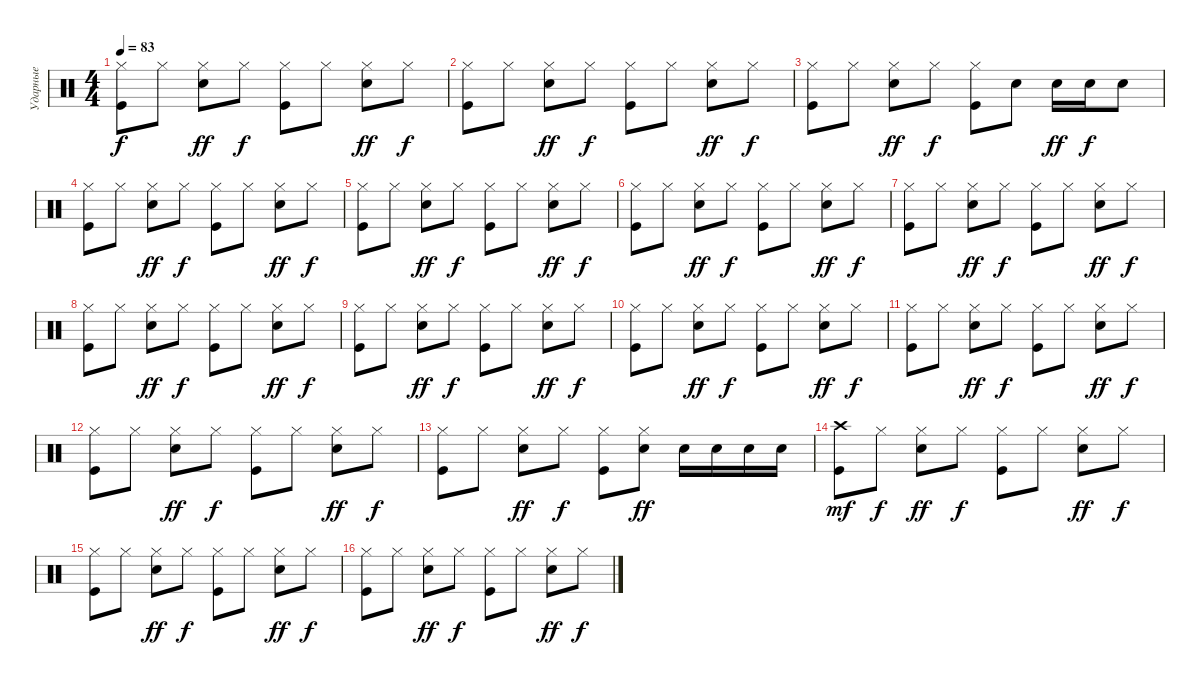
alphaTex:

\track ("Ударные" "Ударные") {instrument percussion}
\staff {score}
\articulation defaults
\ts (4 4)
\tempo 83
\clef neutral
\ks c
("Hi-Hat (closed)" "Kick (hit)").8{dy f} "Hi-Hat (closed)".8 ("Hi-Hat (closed)" "Electric Snare (hit)").8{dy ff} "Hi-Hat (closed)".8{dy f} ("Hi-Hat (closed)" "Kick (hit)").8 "Hi-Hat (closed)".8 ("Hi-Hat (closed)" "Electric Snare (hit)").8{dy ff} "Hi-Hat (closed)".8{dy f} |
("Hi-Hat (closed)" "Kick (hit)").8 "Hi-Hat (closed)".8 ("Hi-Hat (closed)" "Electric Snare (hit)").8{dy ff} "Hi-Hat (closed)".8{dy f} ("Hi-Hat (closed)" "Kick (hit)").8 "Hi-Hat (closed)".8 ("Hi-Hat (closed)" "Electric Snare (hit)").8{dy ff} "Hi-Hat (closed)".8{dy f} |
("Hi-Hat (closed)" "Kick (hit)").8 "Hi-Hat (closed)".8 ("Hi-Hat (closed)" "Electric Snare (hit)").8{dy ff} "Hi-Hat (closed)".8{dy f} ("Hi-Hat (closed)" "Kick (hit)").8 "Electric Snare (hit)".8 "Electric Snare (hit)".16{dy ff} "Electric Snare (hit)".16{dy f} "Electric Snare (hit)".8 |
("Hi-Hat (closed)" "Kick (hit)").8 "Hi-Hat (closed)".8 ("Hi-Hat (closed)" "Electric Snare (hit)").8{dy ff} "Hi-Hat (closed)".8{dy f} ("Hi-Hat (closed)" "Kick (hit)").8 "Hi-Hat (closed)".8 ("Hi-Hat (closed)" "Electric Snare (hit)").8{dy ff} "Hi-Hat (closed)".8{dy f} |
("Hi-Hat (closed)" "Kick (hit)").8 "Hi-Hat (closed)".8 ("Hi-Hat (closed)" "Electric Snare (hit)").8{dy ff} "Hi-Hat (closed)".8{dy f} ("Hi-Hat (closed)" "Kick (hit)").8 "Hi-Hat (closed)".8 ("Hi-Hat (closed)" "Electric Snare (hit)").8{dy ff} "Hi-Hat (closed)".8{dy f} |
("Hi-Hat (closed)" "Kick (hit)").8 "Hi-Hat (closed)".8 ("Hi-Hat (closed)" "Electric Snare (hit)").8{dy ff} "Hi-Hat (closed)".8{dy f} ("Hi-Hat (closed)" "Kick (hit)").8 "Hi-Hat (closed)".8 ("Hi-Hat (closed)" "Electric Snare (hit)").8{dy ff} "Hi-Hat (closed)".8{dy f} |
("Hi-Hat (closed)" "Kick (hit)").8 "Hi-Hat (closed)".8 ("Hi-Hat (closed)" "Electric Snare (hit)").8{dy ff} "Hi-Hat (closed)".8{dy f} ("Hi-Hat (closed)" "Kick (hit)").8 "Hi-Hat (closed)".8 ("Hi-Hat (closed)" "Electric Snare (hit)").8{dy ff} "Hi-Hat (closed)".8{dy f} |
("Hi-Hat (closed)" "Kick (hit)").8 "Hi-Hat (closed)".8 ("Hi-Hat (closed)" "Electric Snare (hit)").8{dy ff} "Hi-Hat (closed)".8{dy f} ("Hi-Hat (closed)" "Kick (hit)").8 "Hi-Hat (closed)".8 ("Hi-Hat (closed)" "Electric Snare (hit)").8{dy ff} "Hi-Hat (closed)".8{dy f} |
("Hi-Hat (closed)" "Kick (hit)").8 "Hi-Hat (closed)".8 ("Hi-Hat (closed)" "Electric Snare (hit)").8{dy ff} "Hi-Hat (closed)".8{dy f} ("Hi-Hat (closed)" "Kick (hit)").8 "Hi-Hat (closed)".8 ("Hi-Hat (closed)" "Electric Snare (hit)").8{dy ff} "Hi-Hat (closed)".8{dy f} |
("Hi-Hat (closed)" "Kick (hit)").8 "Hi-Hat (closed)".8 ("Hi-Hat (closed)" "Electric Snare (hit)").8{dy ff} "Hi-Hat (closed)".8{dy f} ("Hi-Hat (closed)" "Kick (hit)").8 "Hi-Hat (closed)".8 ("Hi-Hat (closed)" "Electric Snare (hit)").8{dy ff} "Hi-Hat (closed)".8{dy f} |
("Hi-Hat (closed)" "Kick (hit)").8 "Hi-Hat (closed)".8 ("Hi-Hat (closed)" "Electric Snare (hit)").8{dy ff} "Hi-Hat (closed)".8{dy f} ("Hi-Hat (closed)" "Kick (hit)").8 "Hi-Hat (closed)".8 ("Hi-Hat (closed)" "Electric Snare (hit)").8{dy ff} "Hi-Hat (closed)".8{dy f} |
("Hi-Hat (closed)" "Kick (hit)").8 "Hi-Hat (closed)".8 ("Hi-Hat (closed)" "Electric Snare (hit)").8{dy ff} "Hi-Hat (closed)".8{dy f} ("Hi-Hat (closed)" "Kick (hit)").8 "Hi-Hat (closed)".8 ("Hi-Hat (closed)" "Electric Snare (hit)").8{dy ff} "Hi-Hat (closed)".8{dy f} |
("Hi-Hat (closed)" "Kick (hit)").8 "Hi-Hat (closed)".8 ("Hi-Hat (closed)" "Electric Snare (hit)").8{dy ff} "Hi-Hat (closed)".8{dy f} ("Hi-Hat (closed)" "Kick (hit)").8 ("Hi-Hat (closed)" "Electric Snare (hit)").8{dy ff} "Electric Snare (hit)".16 "Electric Snare (hit)".16 "Electric Snare (hit)".16 "Electric Snare (hit)".16 |
("Crash high (hit)" "Kick (hit)").8{dy mf} "Hi-Hat (closed)".8{dy f} ("Hi-Hat (closed)" "Electric Snare (hit)").8{dy ff} "Hi-Hat (closed)".8{dy f} ("Hi-Hat (closed)" "Kick (hit)").8 "Hi-Hat (closed)".8 ("Hi-Hat (closed)" "Electric Snare (hit)").8{dy ff} "Hi-Hat (closed)".8{dy f} |
("Hi-Hat (closed)" "Kick (hit)").8 "Hi-Hat (closed)".8 ("Hi-Hat (closed)" "Electric Snare (hit)").8{dy ff} "Hi-Hat (closed)".8{dy f} ("Hi-Hat (closed)" "Kick (hit)").8 "Hi-Hat (closed)".8 ("Hi-Hat (closed)" "Electric Snare (hit)").8{dy ff} "Hi-Hat (closed)".8{dy f} |
("Hi-Hat (closed)" "Kick (hit)").8 "Hi-Hat (closed)".8 ("Hi-Hat (closed)" "Electric Snare (hit)").8{dy ff} "Hi-Hat (closed)".8{dy f} ("Hi-Hat (closed)" "Kick (hit)").8 "Hi-Hat (closed)".8 ("Hi-Hat (closed)" "Electric Snare (hit)").8{dy ff} "Hi-Hat (closed)".8{dy f}
